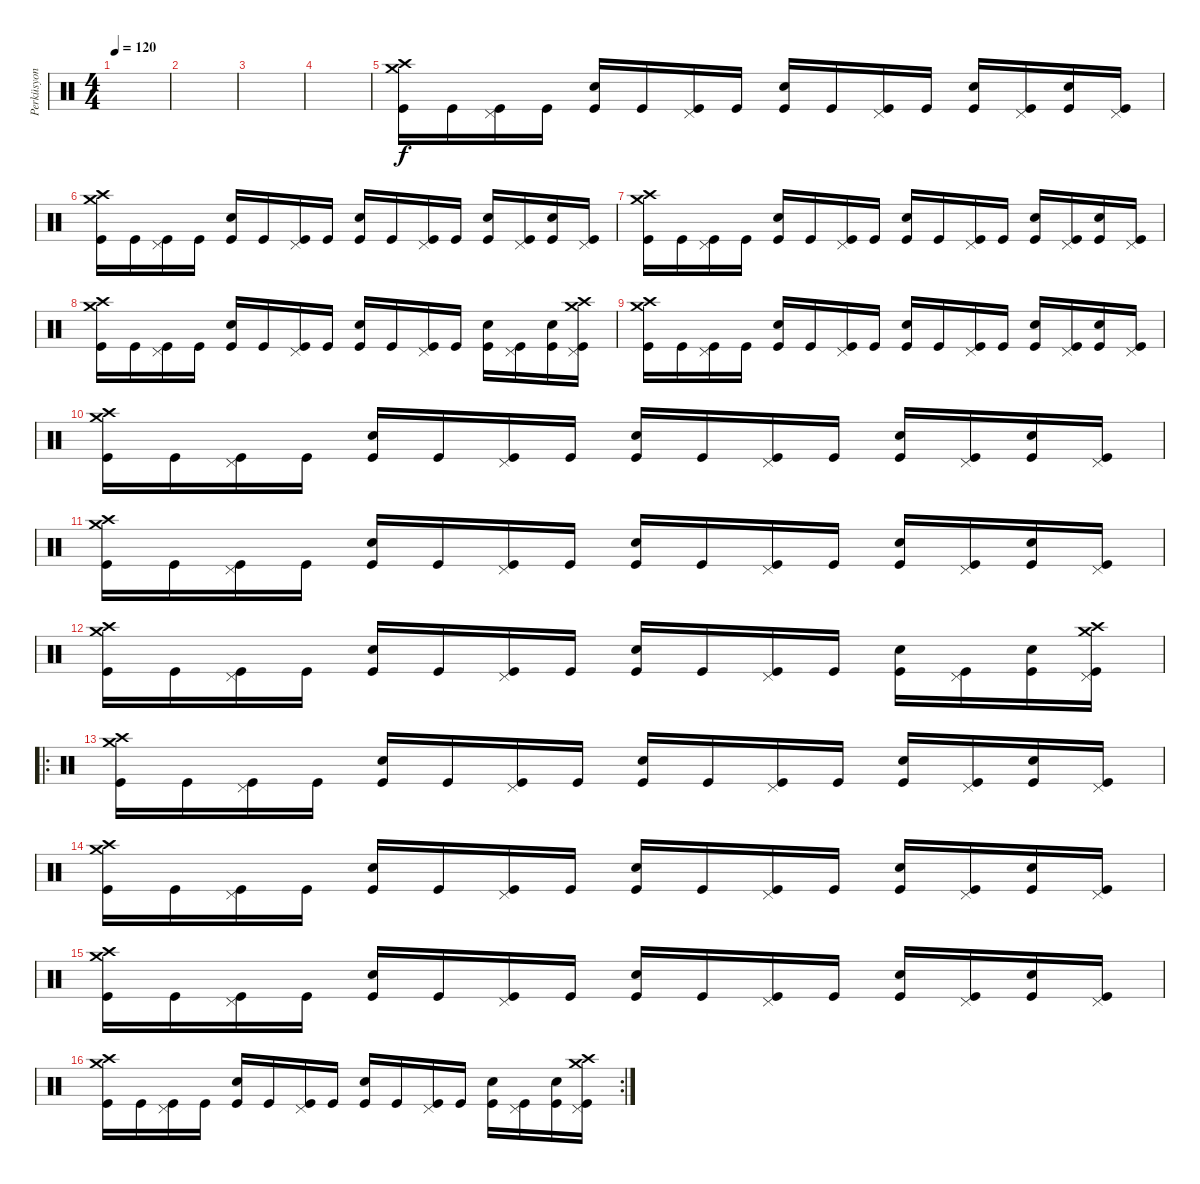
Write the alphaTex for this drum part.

\track ("Perküsyon" "Perküsyon") {instrument percussion}
\staff {score}
\articulation defaults
\ts (4 4)
\tempo 120
\clef neutral
\ks c
|
|
|
|
("Crash high (hit)" "Crash medium (hit)" "Kick (hit)").16 "Kick (hit)".16 ("Pedal Hi-Hat (hit)" "Kick (hit)").16 "Kick (hit)".16 ("Snare (hit) 2" "Kick (hit)").16 "Kick (hit)".16 ("Pedal Hi-Hat (hit)" "Kick (hit)").16 "Kick (hit)".16 ("Electric Snare (hit)" "Kick (hit)").16 "Kick (hit)".16 ("Pedal Hi-Hat (hit)" "Kick (hit)").16 "Kick (hit)".16 ("Snare (hit) 2" "Kick (hit)").16 ("Pedal Hi-Hat (hit)" "Kick (hit)").16 ("Electric Snare (hit)" "Kick (hit)").16 ("Pedal Hi-Hat (hit)" "Kick (hit)").16 |
("Crash high (hit)" "Crash medium (hit)" "Kick (hit)").16 "Kick (hit)".16 ("Pedal Hi-Hat (hit)" "Kick (hit)").16 "Kick (hit)".16 ("Snare (hit) 2" "Kick (hit)").16 "Kick (hit)".16 ("Pedal Hi-Hat (hit)" "Kick (hit)").16 "Kick (hit)".16 ("Electric Snare (hit)" "Kick (hit)").16 "Kick (hit)".16 ("Pedal Hi-Hat (hit)" "Kick (hit)").16 "Kick (hit)".16 ("Snare (hit) 2" "Kick (hit)").16 ("Pedal Hi-Hat (hit)" "Kick (hit)").16 ("Electric Snare (hit)" "Kick (hit)").16 ("Pedal Hi-Hat (hit)" "Kick (hit)").16 |
("Crash high (hit)" "Crash medium (hit)" "Kick (hit)").16 "Kick (hit)".16 ("Pedal Hi-Hat (hit)" "Kick (hit)").16 "Kick (hit)".16 ("Snare (hit) 2" "Kick (hit)").16 "Kick (hit)".16 ("Pedal Hi-Hat (hit)" "Kick (hit)").16 "Kick (hit)".16 ("Electric Snare (hit)" "Kick (hit)").16 "Kick (hit)".16 ("Pedal Hi-Hat (hit)" "Kick (hit)").16 "Kick (hit)".16 ("Snare (hit) 2" "Kick (hit)").16 ("Pedal Hi-Hat (hit)" "Kick (hit)").16 ("Electric Snare (hit)" "Kick (hit)").16 ("Pedal Hi-Hat (hit)" "Kick (hit)").16 |
("Crash high (hit)" "Crash medium (hit)" "Kick (hit)").16 "Kick (hit)".16 ("Pedal Hi-Hat (hit)" "Kick (hit)").16 "Kick (hit)".16 ("Snare (hit) 2" "Kick (hit)").16 "Kick (hit)".16 ("Pedal Hi-Hat (hit)" "Kick (hit)").16 "Kick (hit)".16 ("Electric Snare (hit)" "Kick (hit)").16 "Kick (hit)".16 ("Pedal Hi-Hat (hit)" "Kick (hit)").16 "Kick (hit)".16 ("Snare (hit) 2" "Kick (hit)").16 ("Pedal Hi-Hat (hit)" "Kick (hit)").16 ("Electric Snare (hit)" "Kick (hit)").16 ("Crash medium (hit)" "Crash high (hit)" "Pedal Hi-Hat (hit)" "Kick (hit)").16 |
("Crash high (hit)" "Crash medium (hit)" "Kick (hit)").16 "Kick (hit)".16 ("Pedal Hi-Hat (hit)" "Kick (hit)").16 "Kick (hit)".16 ("Snare (hit) 2" "Kick (hit)").16 "Kick (hit)".16 ("Pedal Hi-Hat (hit)" "Kick (hit)").16 "Kick (hit)".16 ("Electric Snare (hit)" "Kick (hit)").16 "Kick (hit)".16 ("Pedal Hi-Hat (hit)" "Kick (hit)").16 "Kick (hit)".16 ("Snare (hit) 2" "Kick (hit)").16 ("Pedal Hi-Hat (hit)" "Kick (hit)").16 ("Electric Snare (hit)" "Kick (hit)").16 ("Pedal Hi-Hat (hit)" "Kick (hit)").16 |
("Crash high (hit)" "Crash medium (hit)" "Kick (hit)").16 "Kick (hit)".16 ("Pedal Hi-Hat (hit)" "Kick (hit)").16 "Kick (hit)".16 ("Snare (hit) 2" "Kick (hit)").16 "Kick (hit)".16 ("Pedal Hi-Hat (hit)" "Kick (hit)").16 "Kick (hit)".16 ("Electric Snare (hit)" "Kick (hit)").16 "Kick (hit)".16 ("Pedal Hi-Hat (hit)" "Kick (hit)").16 "Kick (hit)".16 ("Snare (hit) 2" "Kick (hit)").16 ("Pedal Hi-Hat (hit)" "Kick (hit)").16 ("Electric Snare (hit)" "Kick (hit)").16 ("Pedal Hi-Hat (hit)" "Kick (hit)").16 |
("Crash high (hit)" "Crash medium (hit)" "Kick (hit)").16 "Kick (hit)".16 ("Pedal Hi-Hat (hit)" "Kick (hit)").16 "Kick (hit)".16 ("Snare (hit) 2" "Kick (hit)").16 "Kick (hit)".16 ("Pedal Hi-Hat (hit)" "Kick (hit)").16 "Kick (hit)".16 ("Electric Snare (hit)" "Kick (hit)").16 "Kick (hit)".16 ("Pedal Hi-Hat (hit)" "Kick (hit)").16 "Kick (hit)".16 ("Snare (hit) 2" "Kick (hit)").16 ("Pedal Hi-Hat (hit)" "Kick (hit)").16 ("Electric Snare (hit)" "Kick (hit)").16 ("Pedal Hi-Hat (hit)" "Kick (hit)").16 |
("Crash high (hit)" "Crash medium (hit)" "Kick (hit)").16 "Kick (hit)".16 ("Pedal Hi-Hat (hit)" "Kick (hit)").16 "Kick (hit)".16 ("Snare (hit) 2" "Kick (hit)").16 "Kick (hit)".16 ("Pedal Hi-Hat (hit)" "Kick (hit)").16 "Kick (hit)".16 ("Electric Snare (hit)" "Kick (hit)").16 "Kick (hit)".16 ("Pedal Hi-Hat (hit)" "Kick (hit)").16 "Kick (hit)".16 ("Snare (hit) 2" "Kick (hit)").16 ("Pedal Hi-Hat (hit)" "Kick (hit)").16 ("Electric Snare (hit)" "Kick (hit)").16 ("Crash medium (hit)" "Crash high (hit)" "Pedal Hi-Hat (hit)" "Kick (hit)").16 |
\ro
("Crash high (hit)" "Crash medium (hit)" "Kick (hit)").16 "Kick (hit)".16 ("Pedal Hi-Hat (hit)" "Kick (hit)").16 "Kick (hit)".16 ("Snare (hit) 2" "Kick (hit)").16 "Kick (hit)".16 ("Pedal Hi-Hat (hit)" "Kick (hit)").16 "Kick (hit)".16 ("Electric Snare (hit)" "Kick (hit)").16 "Kick (hit)".16 ("Pedal Hi-Hat (hit)" "Kick (hit)").16 "Kick (hit)".16 ("Snare (hit) 2" "Kick (hit)").16 ("Pedal Hi-Hat (hit)" "Kick (hit)").16 ("Electric Snare (hit)" "Kick (hit)").16 ("Pedal Hi-Hat (hit)" "Kick (hit)").16 |
("Crash high (hit)" "Crash medium (hit)" "Kick (hit)").16 "Kick (hit)".16 ("Pedal Hi-Hat (hit)" "Kick (hit)").16 "Kick (hit)".16 ("Snare (hit) 2" "Kick (hit)").16 "Kick (hit)".16 ("Pedal Hi-Hat (hit)" "Kick (hit)").16 "Kick (hit)".16 ("Electric Snare (hit)" "Kick (hit)").16 "Kick (hit)".16 ("Pedal Hi-Hat (hit)" "Kick (hit)").16 "Kick (hit)".16 ("Snare (hit) 2" "Kick (hit)").16 ("Pedal Hi-Hat (hit)" "Kick (hit)").16 ("Electric Snare (hit)" "Kick (hit)").16 ("Pedal Hi-Hat (hit)" "Kick (hit)").16 |
("Crash high (hit)" "Crash medium (hit)" "Kick (hit)").16 "Kick (hit)".16 ("Pedal Hi-Hat (hit)" "Kick (hit)").16 "Kick (hit)".16 ("Snare (hit) 2" "Kick (hit)").16 "Kick (hit)".16 ("Pedal Hi-Hat (hit)" "Kick (hit)").16 "Kick (hit)".16 ("Electric Snare (hit)" "Kick (hit)").16 "Kick (hit)".16 ("Pedal Hi-Hat (hit)" "Kick (hit)").16 "Kick (hit)".16 ("Snare (hit) 2" "Kick (hit)").16 ("Pedal Hi-Hat (hit)" "Kick (hit)").16 ("Electric Snare (hit)" "Kick (hit)").16 ("Pedal Hi-Hat (hit)" "Kick (hit)").16 |
\rc 2
("Crash high (hit)" "Crash medium (hit)" "Kick (hit)").16 "Kick (hit)".16 ("Pedal Hi-Hat (hit)" "Kick (hit)").16 "Kick (hit)".16 ("Snare (hit) 2" "Kick (hit)").16 "Kick (hit)".16 ("Pedal Hi-Hat (hit)" "Kick (hit)").16 "Kick (hit)".16 ("Electric Snare (hit)" "Kick (hit)").16 "Kick (hit)".16 ("Pedal Hi-Hat (hit)" "Kick (hit)").16 "Kick (hit)".16 ("Snare (hit) 2" "Kick (hit)").16 ("Pedal Hi-Hat (hit)" "Kick (hit)").16 ("Electric Snare (hit)" "Kick (hit)").16 ("Crash medium (hit)" "Crash high (hit)" "Pedal Hi-Hat (hit)" "Kick (hit)").16
